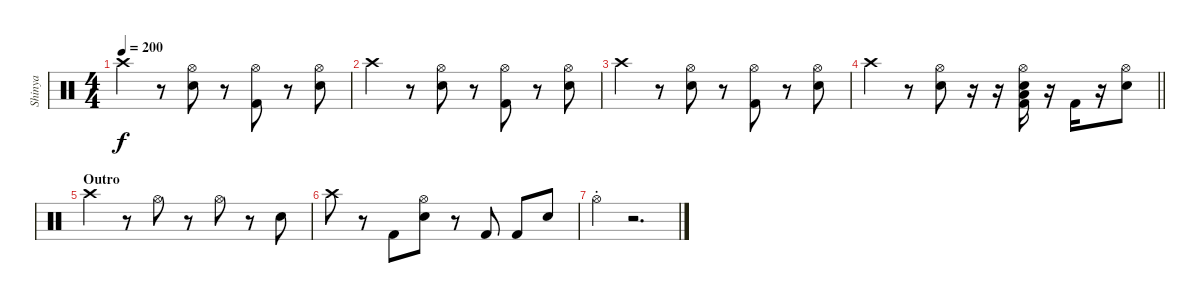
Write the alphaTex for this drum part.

\track ("Shinya" "Shinya") {instrument percussion}
\staff {score}
\articulation defaults
\ts (4 4)
\tempo 200
\clef neutral
\ks c "Crash high (hit)".4{dy f}
r.8 ("Hi-Hat (open)" "Electric Snare (hit)").8 r.8 ("Hi-Hat (open)" "Kick (hit) 2").8 r.8 ("Hi-Hat (open)" "Electric Snare (hit)").8 |
"Crash high (hit)".4 r.8 ("Hi-Hat (open)" "Electric Snare (hit)").8 r.8 ("Hi-Hat (open)" "Kick (hit) 2").8 r.8 ("Hi-Hat (open)" "Electric Snare (hit)").8 |
"Crash high (hit)".4 r.8 ("Hi-Hat (open)" "Electric Snare (hit)").8 r.8 ("Hi-Hat (open)" "Kick (hit) 2").8 r.8 ("Hi-Hat (open)" "Electric Snare (hit)").8 |
\barLineRight lightlight "Crash high (hit)".4
r.8 ("Hi-Hat (open)" "Electric Snare (hit)").8 r.16 r.16 ("Hi-Hat (open)" "Kick (hit) 2" "Electric Snare (hit)" "Low Tom (hit)").16 r.16 "Kick (hit) 2".16 r.16 ("Hi-Hat (open)" "Electric Snare (hit)").8 |
\section ("" "Outro")
"Crash high (hit)".4 r.8 "Hi-Hat (open)".8 r.8 "Hi-Hat (open)".8 r.8 "Electric Snare (hit)".8 |
"Crash high (hit)".8 r.8 "Kick (hit) 2".8 ("Hi-Hat (open)" "Electric Snare (hit)").8 r.8 "Kick (hit) 2".8 "Kick (hit) 2".8 "Electric Snare (hit)".8 |
"Hi-Hat (open)"{st}.4 r.2{d}
